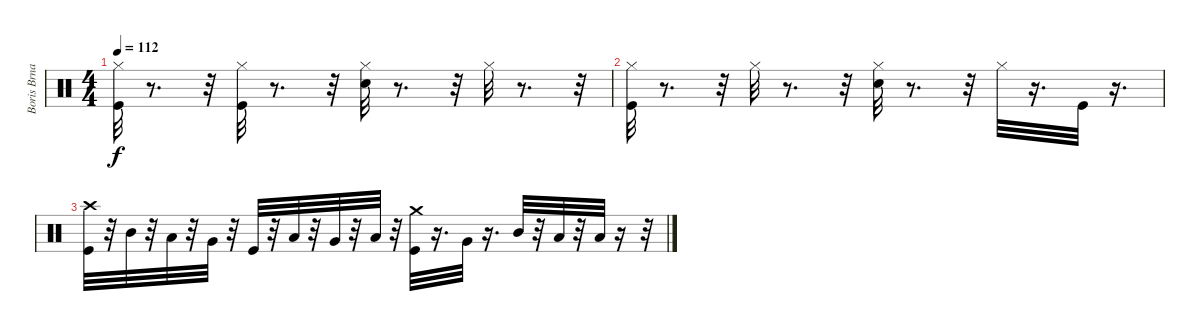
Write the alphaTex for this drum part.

\track ("Boris Brna (Drums)" "Boris Brna") {instrument percussion}
\staff {score}
\articulation defaults
\ts (4 4)
\tempo 112
\clef neutral
\ks c
("Kick (hit)" "Hi-Hat (closed)").32{dy f} r.8{d} r.32 ("Kick (hit)" "Hi-Hat (closed)").32 r.8{d} r.32 ("Snare (hit) 2" "Hi-Hat (closed)").32 r.8{d} r.32 "Hi-Hat (closed)".32 r.8{d} r.32 |
("Kick (hit)" "Hi-Hat (closed)").32 r.8{d} r.32 "Hi-Hat (closed)".32 r.8{d} r.32 ("Hi-Hat (closed)" "Snare (hit) 2").32 r.8{d} r.32 "Hi-Hat (closed)".32 r.16{d} "Kick (hit)".32 r.16{d} |
("Kick (hit)" "Crash high (hit)").32 r.32 "Mid Tom (hit)".32 r.32 "Low Tom (hit)".32 r.32 "Very Low Tom (hit)".32 r.32 "Kick (hit)".32 r.32 "Low Tom (hit)".32 r.32 "Very Low Tom (hit)".32 r.32 "Low Floor Tom (hit)".32 r.32 ("Kick (hit)" "Crash medium (hit)").32 r.16{d} "Very Low Tom (hit)".32 r.16{d} "Mid Tom (hit)".32 r.32 "Low Tom (hit)".32 r.32 "Low Floor Tom (hit)".32 r.16 r.32
